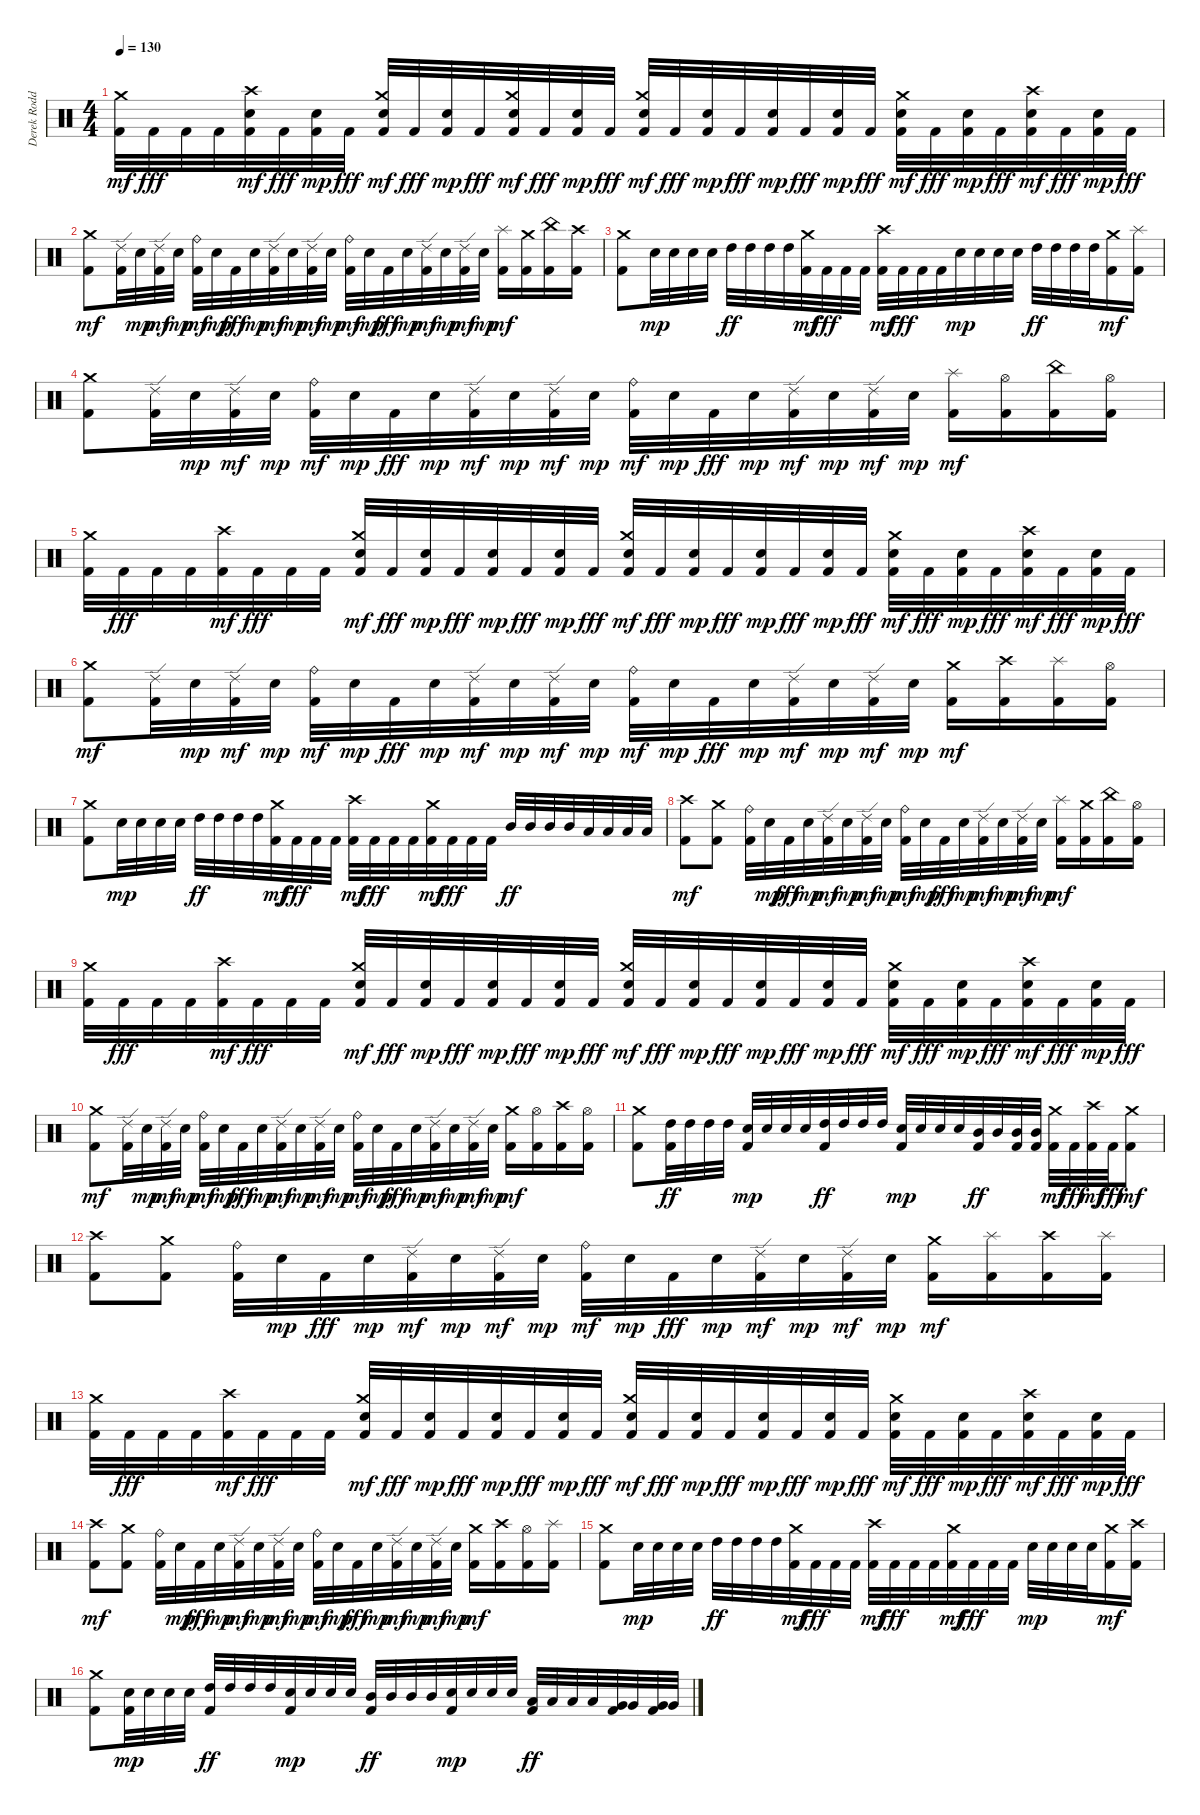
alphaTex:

\track ("Derek Roddy" "Derek Rodd") {instrument percussion}
\staff {score}
\articulation defaults
\ts (4 4)
\tempo 130
\clef neutral
\ks c
("Kick (hit) 2" "Crash medium (hit)").32{dy mf} "Kick (hit) 2".32{dy fff} "Kick (hit) 2".32 "Kick (hit) 2".32 ("Kick (hit) 2" "Electric Snare (hit)" "Crash high (hit)").32{dy mf} "Kick (hit) 2".32{dy fff} ("Kick (hit) 2" "Electric Snare (hit)").32{dy mp} "Kick (hit) 2".32{dy fff} ("Kick (hit) 2" "Electric Snare (hit)" "Crash medium (hit)").32{dy mf} "Kick (hit) 2".32{dy fff} ("Kick (hit) 2" "Electric Snare (hit)").32{dy mp} "Kick (hit) 2".32{dy fff} ("Kick (hit) 2" "Electric Snare (hit)" "Crash medium (hit)").32{dy mf} "Kick (hit) 2".32{dy fff} ("Kick (hit) 2" "Electric Snare (hit)").32{dy mp} "Kick (hit) 2".32{dy fff} ("Kick (hit) 2" "Electric Snare (hit)" "Crash medium (hit)").32{dy mf} "Kick (hit) 2".32{dy fff} ("Kick (hit) 2" "Electric Snare (hit)").32{dy mp} "Kick (hit) 2".32{dy fff} ("Kick (hit) 2" "Electric Snare (hit)").32{dy mp} "Kick (hit) 2".32{dy fff} ("Kick (hit) 2" "Electric Snare (hit)").32{dy mp} "Kick (hit) 2".32{dy fff} ("Kick (hit) 2" "Electric Snare (hit)" "Crash medium (hit)").32{dy mf} "Kick (hit) 2".32{dy fff} ("Kick (hit) 2" "Electric Snare (hit)").32{dy mp} "Kick (hit) 2".32{dy fff} ("Kick (hit) 2" "Electric Snare (hit)" "Crash high (hit)").32{dy mf} "Kick (hit) 2".32{dy fff} ("Kick (hit) 2" "Electric Snare (hit)").32{dy mp} "Kick (hit) 2".32{dy fff} |
("Kick (hit) 2" "Crash medium (hit)").8{dy mf} ("Kick (hit) 2" "Ride (edge) 2").32 "Electric Snare (hit)".32{dy mp} ("Kick (hit) 2" "Ride (edge) 2").32{dy mf} "Electric Snare (hit)".32{dy mp} ("Kick (hit) 2" "Ride (bell)").32{dy mf} "Electric Snare (hit)".32{dy mp} "Kick (hit) 2".32{dy fff} "Electric Snare (hit)".32{dy mp} ("Kick (hit) 2" "Ride (edge) 2").32{dy mf} "Electric Snare (hit)".32{dy mp} ("Kick (hit) 2" "Ride (edge) 2").32{dy mf} "Electric Snare (hit)".32{dy mp} ("Kick (hit) 2" "Ride (bell)").32{dy mf} "Electric Snare (hit)".32{dy mp} "Kick (hit) 2".32{dy fff} "Electric Snare (hit)".32{dy mp} ("Kick (hit) 2" "Ride (edge) 2").32{dy mf} "Electric Snare (hit)".32{dy mp} ("Kick (hit) 2" "Ride (edge) 2").32{dy mf} "Electric Snare (hit)".32{dy mp} ("Kick (hit) 2" "Splash (hit)").16{dy mf} ("Kick (hit) 2" "Crash medium (hit)").16 ("Kick (hit) 2" "China (hit)").16 ("Kick (hit) 2" "Crash high (hit)").16 |
("Kick (hit) 2" "Crash medium (hit)").8 "Electric Snare (hit)".32{dy mp} "Electric Snare (hit)".32 "Electric Snare (hit)".32 "Electric Snare (hit)".32 "High Tom (hit)".32{dy ff} "High Tom (hit)".32 "High Tom (hit)".32 "High Tom (hit)".32 ("Kick (hit) 2" "Crash medium (hit)").32{dy mf} "Kick (hit) 2".32{dy fff} "Kick (hit) 2".32 "Kick (hit) 2".32 ("Kick (hit) 2" "Crash high (hit)").32{dy mf} "Kick (hit) 2".32{dy fff} "Kick (hit) 2".32 "Kick (hit) 2".32 "Electric Snare (hit)".32{dy mp} "Electric Snare (hit)".32 "Electric Snare (hit)".32 "Electric Snare (hit)".32 "High Tom (hit)".32{dy ff} "High Tom (hit)".32 "High Tom (hit)".32 "High Tom (hit)".32 ("Kick (hit) 2" "Crash medium (hit)").16{dy mf} ("Kick (hit) 2" "Splash (hit)").16 |
("Kick (hit) 2" "Crash medium (hit)").8 ("Kick (hit) 2" "Ride (edge) 2").32 "Electric Snare (hit)".32{dy mp} ("Kick (hit) 2" "Ride (edge) 2").32{dy mf} "Electric Snare (hit)".32{dy mp} ("Kick (hit) 2" "Ride (bell)").32{dy mf} "Electric Snare (hit)".32{dy mp} "Kick (hit) 2".32{dy fff} "Electric Snare (hit)".32{dy mp} ("Kick (hit) 2" "Ride (edge) 2").32{dy mf} "Electric Snare (hit)".32{dy mp} ("Kick (hit) 2" "Ride (edge) 2").32{dy mf} "Electric Snare (hit)".32{dy mp} ("Kick (hit) 2" "Ride (bell)").32{dy mf} "Electric Snare (hit)".32{dy mp} "Kick (hit) 2".32{dy fff} "Electric Snare (hit)".32{dy mp} ("Kick (hit) 2" "Ride (edge) 2").32{dy mf} "Electric Snare (hit)".32{dy mp} ("Kick (hit) 2" "Ride (edge) 2").32{dy mf} "Electric Snare (hit)".32{dy mp} ("Kick (hit) 2" "Splash (hit)").16{dy mf} ("Kick (hit) 2" "Hi-Hat (open)").16 ("Kick (hit) 2" "China (hit)").16 ("Kick (hit) 2" "Hi-Hat (open)").16 |
("Kick (hit) 2" "Crash medium (hit)").32 "Kick (hit) 2".32{dy fff} "Kick (hit) 2".32 "Kick (hit) 2".32 ("Kick (hit) 2" "Crash high (hit)").32{dy mf} "Kick (hit) 2".32{dy fff} "Kick (hit) 2".32 "Kick (hit) 2".32 ("Kick (hit) 2" "Electric Snare (hit)" "Crash medium (hit)").32{dy mf} "Kick (hit) 2".32{dy fff} ("Kick (hit) 2" "Electric Snare (hit)").32{dy mp} "Kick (hit) 2".32{dy fff} ("Kick (hit) 2" "Electric Snare (hit)").32{dy mp} "Kick (hit) 2".32{dy fff} ("Kick (hit) 2" "Electric Snare (hit)").32{dy mp} "Kick (hit) 2".32{dy fff} ("Kick (hit) 2" "Electric Snare (hit)" "Crash medium (hit)").32{dy mf} "Kick (hit) 2".32{dy fff} ("Kick (hit) 2" "Electric Snare (hit)").32{dy mp} "Kick (hit) 2".32{dy fff} ("Kick (hit) 2" "Electric Snare (hit)").32{dy mp} "Kick (hit) 2".32{dy fff} ("Kick (hit) 2" "Electric Snare (hit)").32{dy mp} "Kick (hit) 2".32{dy fff} ("Kick (hit) 2" "Electric Snare (hit)" "Crash medium (hit)").32{dy mf} "Kick (hit) 2".32{dy fff} ("Kick (hit) 2" "Electric Snare (hit)").32{dy mp} "Kick (hit) 2".32{dy fff} ("Kick (hit) 2" "Electric Snare (hit)" "Crash high (hit)").32{dy mf} "Kick (hit) 2".32{dy fff} ("Kick (hit) 2" "Electric Snare (hit)").32{dy mp} "Kick (hit) 2".32{dy fff} |
("Kick (hit) 2" "Crash medium (hit)").8{dy mf} ("Kick (hit) 2" "Ride (edge) 2").32 "Electric Snare (hit)".32{dy mp} ("Kick (hit) 2" "Ride (edge) 2").32{dy mf} "Electric Snare (hit)".32{dy mp} ("Kick (hit) 2" "Ride (bell)").32{dy mf} "Electric Snare (hit)".32{dy mp} "Kick (hit) 2".32{dy fff} "Electric Snare (hit)".32{dy mp} ("Kick (hit) 2" "Ride (edge) 2").32{dy mf} "Electric Snare (hit)".32{dy mp} ("Kick (hit) 2" "Ride (edge) 2").32{dy mf} "Electric Snare (hit)".32{dy mp} ("Kick (hit) 2" "Ride (bell)").32{dy mf} "Electric Snare (hit)".32{dy mp} "Kick (hit) 2".32{dy fff} "Electric Snare (hit)".32{dy mp} ("Kick (hit) 2" "Ride (edge) 2").32{dy mf} "Electric Snare (hit)".32{dy mp} ("Kick (hit) 2" "Ride (edge) 2").32{dy mf} "Electric Snare (hit)".32{dy mp} ("Kick (hit) 2" "Crash medium (hit)").16{dy mf} ("Kick (hit) 2" "Crash high (hit)").16 ("Kick (hit) 2" "Splash (hit)").16 ("Kick (hit) 2" "Hi-Hat (open)").16 |
("Kick (hit) 2" "Crash medium (hit)").8 "Electric Snare (hit)".32{dy mp} "Electric Snare (hit)".32 "Electric Snare (hit)".32 "Electric Snare (hit)".32 "High Tom (hit)".32{dy ff} "High Tom (hit)".32 "High Tom (hit)".32 "High Tom (hit)".32 ("Kick (hit) 2" "Crash medium (hit)").32{dy mf} "Kick (hit) 2".32{dy fff} "Kick (hit) 2".32 "Kick (hit) 2".32 ("Kick (hit) 2" "Crash high (hit)").32{dy mf} "Kick (hit) 2".32{dy fff} "Kick (hit) 2".32 "Kick (hit) 2".32 ("Kick (hit) 2" "Crash medium (hit)").32{dy mf} "Kick (hit) 2".32{dy fff} "Kick (hit) 2".32 "Kick (hit) 2".32 "Mid Tom (hit)".32{dy ff} "Mid Tom (hit)".32 "Mid Tom (hit)".32 "Mid Tom (hit)".32 "Low Tom (hit)".32 "Low Tom (hit)".32 "Low Tom (hit)".32 "Low Tom (hit)".32 |
("Kick (hit) 2" "Crash high (hit)").8{dy mf} ("Kick (hit) 2" "Crash medium (hit)").8 ("Kick (hit) 2" "Ride (bell)").32 "Electric Snare (hit)".32{dy mp} "Kick (hit) 2".32{dy fff} "Electric Snare (hit)".32{dy mp} ("Kick (hit) 2" "Ride (edge) 2").32{dy mf} "Electric Snare (hit)".32{dy mp} ("Kick (hit) 2" "Ride (edge) 2").32{dy mf} "Electric Snare (hit)".32{dy mp} ("Kick (hit) 2" "Ride (bell)").32{dy mf} "Electric Snare (hit)".32{dy mp} "Kick (hit) 2".32{dy fff} "Electric Snare (hit)".32{dy mp} ("Kick (hit) 2" "Ride (edge) 2").32{dy mf} "Electric Snare (hit)".32{dy mp} ("Kick (hit) 2" "Ride (edge) 2").32{dy mf} "Electric Snare (hit)".32{dy mp} ("Kick (hit) 2" "Splash (hit)").16{dy mf} ("Kick (hit) 2" "Crash medium (hit)").16 ("Kick (hit) 2" "China (hit)").16 ("Kick (hit) 2" "Hi-Hat (open)").16 |
("Kick (hit) 2" "Crash medium (hit)").32 "Kick (hit) 2".32{dy fff} "Kick (hit) 2".32 "Kick (hit) 2".32 ("Kick (hit) 2" "Crash high (hit)").32{dy mf} "Kick (hit) 2".32{dy fff} "Kick (hit) 2".32 "Kick (hit) 2".32 ("Kick (hit) 2" "Electric Snare (hit)" "Crash medium (hit)").32{dy mf} "Kick (hit) 2".32{dy fff} ("Kick (hit) 2" "Electric Snare (hit)").32{dy mp} "Kick (hit) 2".32{dy fff} ("Kick (hit) 2" "Electric Snare (hit)").32{dy mp} "Kick (hit) 2".32{dy fff} ("Kick (hit) 2" "Electric Snare (hit)").32{dy mp} "Kick (hit) 2".32{dy fff} ("Kick (hit) 2" "Electric Snare (hit)" "Crash medium (hit)").32{dy mf} "Kick (hit) 2".32{dy fff} ("Kick (hit) 2" "Electric Snare (hit)").32{dy mp} "Kick (hit) 2".32{dy fff} ("Kick (hit) 2" "Electric Snare (hit)").32{dy mp} "Kick (hit) 2".32{dy fff} ("Kick (hit) 2" "Electric Snare (hit)").32{dy mp} "Kick (hit) 2".32{dy fff} ("Kick (hit) 2" "Electric Snare (hit)" "Crash medium (hit)").32{dy mf} "Kick (hit) 2".32{dy fff} ("Kick (hit) 2" "Electric Snare (hit)").32{dy mp} "Kick (hit) 2".32{dy fff} ("Kick (hit) 2" "Electric Snare (hit)" "Crash high (hit)").32{dy mf} "Kick (hit) 2".32{dy fff} ("Kick (hit) 2" "Electric Snare (hit)").32{dy mp} "Kick (hit) 2".32{dy fff} |
("Kick (hit) 2" "Crash medium (hit)").8{dy mf} ("Kick (hit) 2" "Ride (edge) 2").32 "Electric Snare (hit)".32{dy mp} ("Kick (hit) 2" "Ride (edge) 2").32{dy mf} "Electric Snare (hit)".32{dy mp} ("Kick (hit) 2" "Ride (bell)").32{dy mf} "Electric Snare (hit)".32{dy mp} "Kick (hit) 2".32{dy fff} "Electric Snare (hit)".32{dy mp} ("Kick (hit) 2" "Ride (edge) 2").32{dy mf} "Electric Snare (hit)".32{dy mp} ("Kick (hit) 2" "Ride (edge) 2").32{dy mf} "Electric Snare (hit)".32{dy mp} ("Kick (hit) 2" "Ride (bell)").32{dy mf} "Electric Snare (hit)".32{dy mp} "Kick (hit) 2".32{dy fff} "Electric Snare (hit)".32{dy mp} ("Kick (hit) 2" "Ride (edge) 2").32{dy mf} "Electric Snare (hit)".32{dy mp} ("Kick (hit) 2" "Ride (edge) 2").32{dy mf} "Electric Snare (hit)".32{dy mp} ("Kick (hit) 2" "Crash medium (hit)").16{dy mf} ("Kick (hit) 2" "Hi-Hat (open)").16 ("Kick (hit) 2" "Crash high (hit)").16 ("Kick (hit) 2" "Hi-Hat (open)").16 |
("Kick (hit) 2" "Crash medium (hit)").8 ("Kick (hit) 2" "High Tom (hit)").32{dy ff} "High Tom (hit)".32 "High Tom (hit)".32 "High Tom (hit)".32 ("Kick (hit) 2" "Electric Snare (hit)").32{dy mp} "Electric Snare (hit)".32 "Electric Snare (hit)".32 "Electric Snare (hit)".32 ("Kick (hit) 2" "High Tom (hit)").32{dy ff} "High Tom (hit)".32 "High Tom (hit)".32 "High Tom (hit)".32 ("Kick (hit) 2" "Electric Snare (hit)").32{dy mp} "Electric Snare (hit)".32 "Electric Snare (hit)".32 "Electric Snare (hit)".32 ("Kick (hit) 2" "Mid Tom (hit)").32{dy ff} "Mid Tom (hit)".32 ("Kick (hit) 2" "Mid Tom (hit)").32 ("Kick (hit) 2" "Mid Tom (hit)").32 ("Kick (hit) 2" "Crash medium (hit)").32{dy mf} "Kick (hit) 2".32{dy fff} ("Kick (hit) 2" "Crash high (hit)").32{dy mf} "Kick (hit) 2".32{dy fff} ("Kick (hit) 2" "Crash medium (hit)").8{dy mf} |
("Kick (hit) 2" "Crash high (hit)").8 ("Kick (hit) 2" "Crash medium (hit)").8 ("Kick (hit) 2" "Ride (bell)").32 "Electric Snare (hit)".32{dy mp} "Kick (hit) 2".32{dy fff} "Electric Snare (hit)".32{dy mp} ("Kick (hit) 2" "Ride (edge) 2").32{dy mf} "Electric Snare (hit)".32{dy mp} ("Kick (hit) 2" "Ride (edge) 2").32{dy mf} "Electric Snare (hit)".32{dy mp} ("Kick (hit) 2" "Ride (bell)").32{dy mf} "Electric Snare (hit)".32{dy mp} "Kick (hit) 2".32{dy fff} "Electric Snare (hit)".32{dy mp} ("Kick (hit) 2" "Ride (edge) 2").32{dy mf} "Electric Snare (hit)".32{dy mp} ("Kick (hit) 2" "Ride (edge) 2").32{dy mf} "Electric Snare (hit)".32{dy mp} ("Kick (hit) 2" "Crash medium (hit)").16{dy mf} ("Kick (hit) 2" "Splash (hit)").16 ("Kick (hit) 2" "Crash high (hit)").16 ("Kick (hit) 2" "Splash (hit)").16 |
("Kick (hit) 2" "Crash medium (hit)").32 "Kick (hit) 2".32{dy fff} "Kick (hit) 2".32 "Kick (hit) 2".32 ("Kick (hit) 2" "Crash high (hit)").32{dy mf} "Kick (hit) 2".32{dy fff} "Kick (hit) 2".32 "Kick (hit) 2".32 ("Kick (hit) 2" "Electric Snare (hit)" "Crash medium (hit)").32{dy mf} "Kick (hit) 2".32{dy fff} ("Kick (hit) 2" "Electric Snare (hit)").32{dy mp} "Kick (hit) 2".32{dy fff} ("Kick (hit) 2" "Electric Snare (hit)").32{dy mp} "Kick (hit) 2".32{dy fff} ("Kick (hit) 2" "Electric Snare (hit)").32{dy mp} "Kick (hit) 2".32{dy fff} ("Kick (hit) 2" "Electric Snare (hit)" "Crash medium (hit)").32{dy mf} "Kick (hit) 2".32{dy fff} ("Kick (hit) 2" "Electric Snare (hit)").32{dy mp} "Kick (hit) 2".32{dy fff} ("Kick (hit) 2" "Electric Snare (hit)").32{dy mp} "Kick (hit) 2".32{dy fff} ("Kick (hit) 2" "Electric Snare (hit)").32{dy mp} "Kick (hit) 2".32{dy fff} ("Kick (hit) 2" "Electric Snare (hit)" "Crash medium (hit)").32{dy mf} "Kick (hit) 2".32{dy fff} ("Kick (hit) 2" "Electric Snare (hit)").32{dy mp} "Kick (hit) 2".32{dy fff} ("Kick (hit) 2" "Electric Snare (hit)" "Crash high (hit)").32{dy mf} "Kick (hit) 2".32{dy fff} ("Kick (hit) 2" "Electric Snare (hit)").32{dy mp} "Kick (hit) 2".32{dy fff} |
("Kick (hit) 2" "Crash high (hit)").8{dy mf} ("Kick (hit) 2" "Crash medium (hit)").8 ("Kick (hit) 2" "Ride (bell)").32 "Electric Snare (hit)".32{dy mp} "Kick (hit) 2".32{dy fff} "Electric Snare (hit)".32{dy mp} ("Kick (hit) 2" "Ride (edge) 2").32{dy mf} "Electric Snare (hit)".32{dy mp} ("Kick (hit) 2" "Ride (edge) 2").32{dy mf} "Electric Snare (hit)".32{dy mp} ("Kick (hit) 2" "Ride (bell)").32{dy mf} "Electric Snare (hit)".32{dy mp} "Kick (hit) 2".32{dy fff} "Electric Snare (hit)".32{dy mp} ("Kick (hit) 2" "Ride (edge) 2").32{dy mf} "Electric Snare (hit)".32{dy mp} ("Kick (hit) 2" "Ride (edge) 2").32{dy mf} "Electric Snare (hit)".32{dy mp} ("Kick (hit) 2" "Crash medium (hit)").16{dy mf} ("Kick (hit) 2" "Crash high (hit)").16 ("Kick (hit) 2" "Hi-Hat (open)").16 ("Kick (hit) 2" "Splash (hit)").16 |
("Kick (hit) 2" "Crash medium (hit)").8 "Electric Snare (hit)".32{dy mp} "Electric Snare (hit)".32 "Electric Snare (hit)".32 "Electric Snare (hit)".32 "High Tom (hit)".32{dy ff} "High Tom (hit)".32 "High Tom (hit)".32 "High Tom (hit)".32 ("Kick (hit) 2" "Crash medium (hit)").32{dy mf} "Kick (hit) 2".32{dy fff} "Kick (hit) 2".32 "Kick (hit) 2".32 ("Kick (hit) 2" "Crash high (hit)").32{dy mf} "Kick (hit) 2".32{dy fff} "Kick (hit) 2".32 "Kick (hit) 2".32 ("Kick (hit) 2" "Crash medium (hit)").32{dy mf} "Kick (hit) 2".32{dy fff} "Kick (hit) 2".32 "Kick (hit) 2".32 "Electric Snare (hit)".32{dy mp} "Electric Snare (hit)".32 "Electric Snare (hit)".32 "Electric Snare (hit)".32 ("Kick (hit) 2" "Crash medium (hit)").16{dy mf} ("Kick (hit) 2" "Crash high (hit)").16 |
("Kick (hit) 2" "Crash medium (hit)").8 ("Kick (hit) 2" "Electric Snare (hit)").32{dy mp} "Electric Snare (hit)".32 "Electric Snare (hit)".32 "Electric Snare (hit)".32 ("Kick (hit) 2" "High Tom (hit)").32{dy ff} "High Tom (hit)".32 "High Tom (hit)".32 "High Tom (hit)".32 ("Kick (hit) 2" "Electric Snare (hit)").32{dy mp} "Electric Snare (hit)".32 "Electric Snare (hit)".32 "Electric Snare (hit)".32 ("Kick (hit) 2" "Mid Tom (hit)").32{dy ff} "Mid Tom (hit)".32 "Mid Tom (hit)".32 "Mid Tom (hit)".32 ("Kick (hit) 2" "Electric Snare (hit)").32{dy mp} "Electric Snare (hit)".32 "Electric Snare (hit)".32 "Electric Snare (hit)".32 ("Kick (hit) 2" "Low Tom (hit)").32{dy ff} "Low Tom (hit)".32 "Low Tom (hit)".32 "Low Tom (hit)".32 ("Kick (hit) 2" "Very Low Tom (hit)").32 "Very Low Tom (hit)".32 ("Kick (hit) 2" "Very Low Tom (hit)").32 "Very Low Tom (hit)".32
